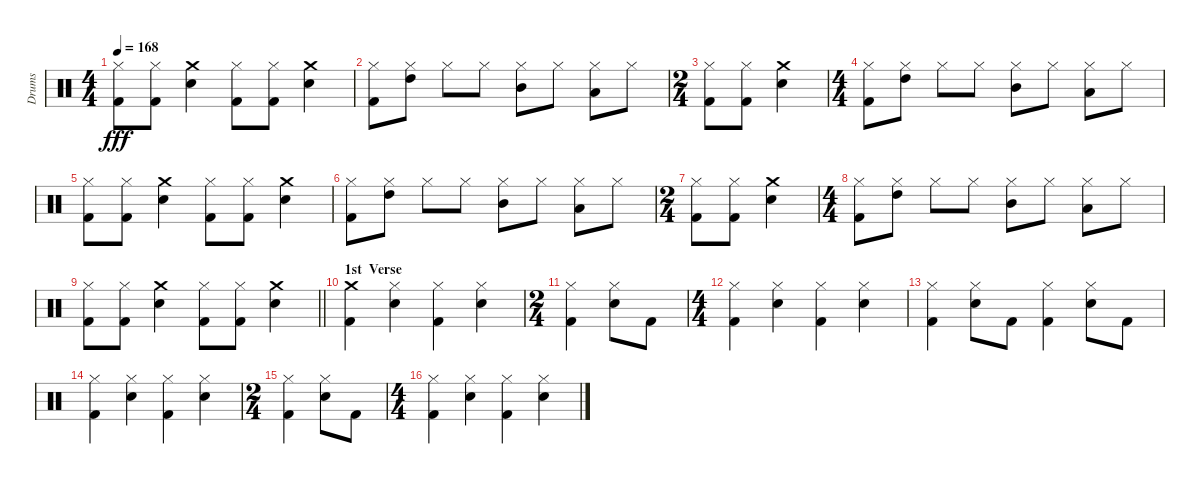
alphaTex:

\track ("Drums" "Drums") {instrument percussion}
\staff {score}
\articulation defaults
\ts (4 4)
\tempo 168
\clef neutral
\ks c
("Hi-Hat (closed)" "Kick (hit) 2").8{dy fff} ("Hi-Hat (closed)" "Kick (hit) 2").8 ("Snare (hit) 2" "Crash medium (hit)").4 ("Kick (hit) 2" "Hi-Hat (closed)").8 ("Kick (hit) 2" "Hi-Hat (closed)").8 ("Crash medium (hit)" "Snare (hit) 2").4 |
("Hi-Hat (closed)" "Kick (hit) 2").8 ("High Tom (hit)" "Hi-Hat (closed)").8{balance 16} "Hi-Hat (closed)".8{balance 8} "Hi-Hat (closed)".8 ("Mid Tom (hit)" "Hi-Hat (closed)").8 "Hi-Hat (closed)".8 ("Low Tom (hit)" "Hi-Hat (closed)").8{balance 0} "Hi-Hat (closed)".8{balance 8} |
\ts (2 4)
("Kick (hit) 2" "Hi-Hat (closed)").8 ("Kick (hit) 2" "Hi-Hat (closed)").8 ("Snare (hit) 2" "Crash medium (hit)").4 |
\ts (4 4)
("Hi-Hat (closed)" "Kick (hit) 2").8 ("High Tom (hit)" "Hi-Hat (closed)").8{balance 16} "Hi-Hat (closed)".8{balance 8} "Hi-Hat (closed)".8 ("Mid Tom (hit)" "Hi-Hat (closed)").8 "Hi-Hat (closed)".8 ("Hi-Hat (closed)" "Low Tom (hit)").8{balance 0} "Hi-Hat (closed)".8{balance 8} |
("Hi-Hat (closed)" "Kick (hit) 2").8 ("Hi-Hat (closed)" "Kick (hit) 2").8 ("Snare (hit) 2" "Crash medium (hit)").4 ("Kick (hit) 2" "Hi-Hat (closed)").8 ("Kick (hit) 2" "Hi-Hat (closed)").8 ("Crash medium (hit)" "Snare (hit) 2").4 |
("Hi-Hat (closed)" "Kick (hit) 2").8 ("High Tom (hit)" "Hi-Hat (closed)").8{balance 16} "Hi-Hat (closed)".8{balance 8} "Hi-Hat (closed)".8 ("Mid Tom (hit)" "Hi-Hat (closed)").8 "Hi-Hat (closed)".8 ("Hi-Hat (closed)" "Low Tom (hit)").8{balance 0} "Hi-Hat (closed)".8{balance 8} |
\ts (2 4)
("Hi-Hat (closed)" "Kick (hit) 2").8 ("Hi-Hat (closed)" "Kick (hit) 2").8 ("Crash medium (hit)" "Snare (hit) 2").4 |
\ts (4 4)
("Hi-Hat (closed)" "Kick (hit) 2").8 ("High Tom (hit)" "Hi-Hat (closed)").8{balance 16} "Hi-Hat (closed)".8{balance 8} "Hi-Hat (closed)".8 ("Mid Tom (hit)" "Hi-Hat (closed)").8 "Hi-Hat (closed)".8 ("Hi-Hat (closed)" "Low Tom (hit)").8{balance 0} "Hi-Hat (closed)".8{balance 8} |
\barLineRight lightlight
("Hi-Hat (closed)" "Kick (hit) 2").8 ("Hi-Hat (closed)" "Kick (hit) 2").8 ("Snare (hit) 2" "Crash medium (hit)").4 ("Kick (hit) 2" "Hi-Hat (closed)").8 ("Kick (hit) 2" "Hi-Hat (closed)").8 ("Crash medium (hit)" "Snare (hit) 2").4 |
\section ("" "1st  Verse")
("Kick (hit) 2" "Crash medium (hit)").4 ("Hi-Hat (closed)" "Snare (hit) 2").4 ("Hi-Hat (closed)" "Kick (hit) 2").4 ("Snare (hit) 2" "Hi-Hat (closed)").4 |
\ts (2 4)
("Hi-Hat (closed)" "Kick (hit) 2").4 ("Snare (hit) 2" "Hi-Hat (closed)").8 "Kick (hit) 2".8 |
\ts (4 4)
("Kick (hit) 2" "Hi-Hat (closed)").4 ("Snare (hit) 2" "Hi-Hat (closed)").4 ("Kick (hit) 2" "Hi-Hat (closed)").4 ("Snare (hit) 2" "Hi-Hat (closed)").4 |
("Hi-Hat (closed)" "Kick (hit) 2").4 ("Snare (hit) 2" "Hi-Hat (closed)").8 "Kick (hit) 2".8 ("Kick (hit) 2" "Hi-Hat (closed)").4 ("Hi-Hat (closed)" "Snare (hit) 2").8 "Kick (hit) 2".8 |
("Hi-Hat (closed)" "Kick (hit) 2").4 ("Hi-Hat (closed)" "Snare (hit) 2").4 ("Hi-Hat (closed)" "Kick (hit) 2").4 ("Snare (hit) 2" "Hi-Hat (closed)").4 |
\ts (2 4)
("Hi-Hat (closed)" "Kick (hit) 2").4 ("Snare (hit) 2" "Hi-Hat (closed)").8 "Kick (hit) 2".8 |
\ts (4 4)
("Kick (hit) 2" "Hi-Hat (closed)").4 ("Snare (hit) 2" "Hi-Hat (closed)").4 ("Kick (hit) 2" "Hi-Hat (closed)").4 ("Snare (hit) 2" "Hi-Hat (closed)").4
